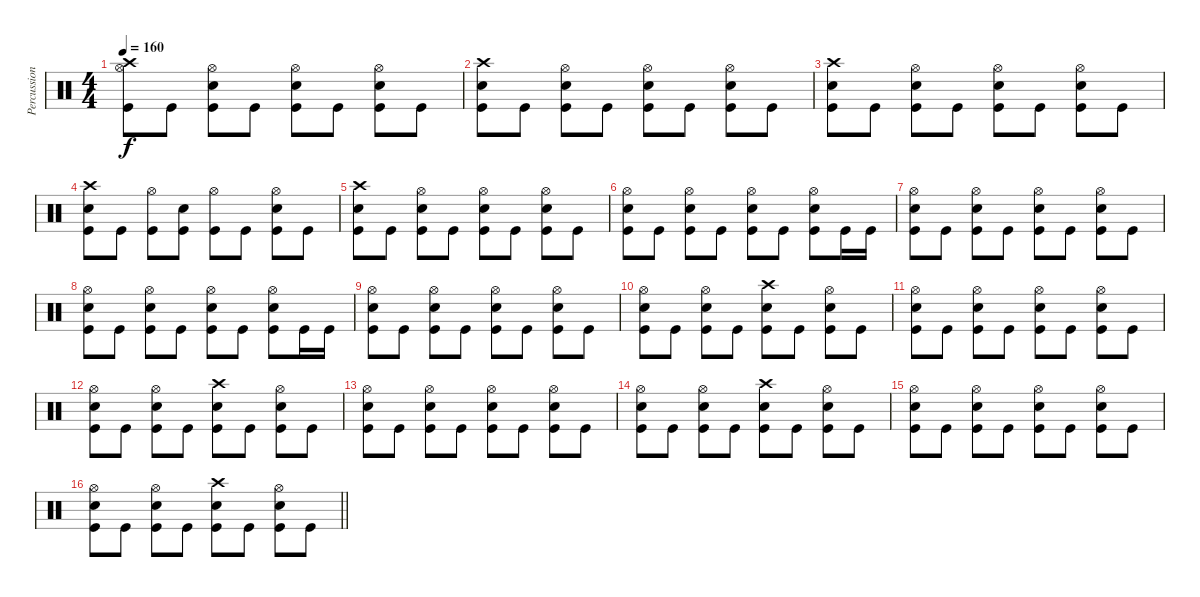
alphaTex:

\track ("Percussion" "Percussion") {instrument percussion}
\staff {score}
\articulation defaults
\ts (4 4)
\tempo 160
\clef neutral
\ks c
("Crash high (hit)" "Hi-Hat (open)" "Kick (hit)").8{dy f} "Kick (hit)".8 ("Hi-Hat (open)" "Electric Snare (hit)" "Kick (hit)").8 "Kick (hit)".8 ("Hi-Hat (open)" "Electric Snare (hit)" "Kick (hit)").8 "Kick (hit)".8 ("Hi-Hat (open)" "Electric Snare (hit)" "Kick (hit)").8 "Kick (hit)".8 |
("Crash high (hit)" "Electric Snare (hit)" "Kick (hit)").8 "Kick (hit)".8 ("Hi-Hat (open)" "Electric Snare (hit)" "Kick (hit)").8 "Kick (hit)".8 ("Hi-Hat (open)" "Electric Snare (hit)" "Kick (hit)").8 "Kick (hit)".8 ("Hi-Hat (open)" "Electric Snare (hit)" "Kick (hit)").8 "Kick (hit)".8 |
("Crash high (hit)" "Electric Snare (hit)" "Kick (hit)").8 "Kick (hit)".8 ("Hi-Hat (open)" "Electric Snare (hit)" "Kick (hit)").8 "Kick (hit)".8 ("Hi-Hat (open)" "Electric Snare (hit)" "Kick (hit)").8 "Kick (hit)".8 ("Hi-Hat (open)" "Electric Snare (hit)" "Kick (hit)").8 "Kick (hit)".8 |
("Crash high (hit)" "Electric Snare (hit)" "Kick (hit)").8 "Kick (hit)".8 ("Hi-Hat (open)" "Kick (hit)").8 ("Electric Snare (hit)" "Kick (hit)").8 ("Hi-Hat (open)" "Kick (hit)").8 "Kick (hit)".8 ("Hi-Hat (open)" "Electric Snare (hit)" "Kick (hit)").8 "Kick (hit)".8 |
("Crash high (hit)" "Electric Snare (hit)" "Kick (hit)").8 "Kick (hit)".8 ("Hi-Hat (open)" "Electric Snare (hit)" "Kick (hit)").8 "Kick (hit)".8 ("Hi-Hat (open)" "Electric Snare (hit)" "Kick (hit)").8 "Kick (hit)".8 ("Hi-Hat (open)" "Electric Snare (hit)" "Kick (hit)").8 "Kick (hit)".8 |
("Hi-Hat (open)" "Electric Snare (hit)" "Kick (hit)").8 "Kick (hit)".8 ("Hi-Hat (open)" "Electric Snare (hit)" "Kick (hit)").8 "Kick (hit)".8 ("Hi-Hat (open)" "Electric Snare (hit)" "Kick (hit)").8 "Kick (hit)".8 ("Hi-Hat (open)" "Electric Snare (hit)" "Kick (hit)").8 "Kick (hit)".16 "Kick (hit)".16 |
("Hi-Hat (open)" "Electric Snare (hit)" "Kick (hit)").8 "Kick (hit)".8 ("Hi-Hat (open)" "Electric Snare (hit)" "Kick (hit)").8 "Kick (hit)".8 ("Hi-Hat (open)" "Electric Snare (hit)" "Kick (hit)").8 "Kick (hit)".8 ("Hi-Hat (open)" "Electric Snare (hit)" "Kick (hit)").8 "Kick (hit)".8 |
("Hi-Hat (open)" "Electric Snare (hit)" "Kick (hit)").8 "Kick (hit)".8 ("Hi-Hat (open)" "Electric Snare (hit)" "Kick (hit)").8 "Kick (hit)".8 ("Hi-Hat (open)" "Electric Snare (hit)" "Kick (hit)").8 "Kick (hit)".8 ("Hi-Hat (open)" "Electric Snare (hit)" "Kick (hit)").8 "Kick (hit)".16 "Kick (hit)".16 |
("Hi-Hat (open)" "Electric Snare (hit)" "Kick (hit)").8 "Kick (hit)".8 ("Hi-Hat (open)" "Electric Snare (hit)" "Kick (hit)").8 "Kick (hit)".8 ("Hi-Hat (open)" "Electric Snare (hit)" "Kick (hit)").8 "Kick (hit)".8 ("Hi-Hat (open)" "Electric Snare (hit)" "Kick (hit)").8 "Kick (hit)".8 |
("Hi-Hat (open)" "Electric Snare (hit)" "Kick (hit)").8 "Kick (hit)".8 ("Hi-Hat (open)" "Electric Snare (hit)" "Kick (hit)").8 "Kick (hit)".8 ("Crash high (hit)" "Electric Snare (hit)" "Kick (hit)").8 "Kick (hit)".8 ("Hi-Hat (open)" "Electric Snare (hit)" "Kick (hit)").8 "Kick (hit)".8 |
("Hi-Hat (open)" "Electric Snare (hit)" "Kick (hit)").8 "Kick (hit)".8 ("Hi-Hat (open)" "Electric Snare (hit)" "Kick (hit)").8 "Kick (hit)".8 ("Hi-Hat (open)" "Electric Snare (hit)" "Kick (hit)").8 "Kick (hit)".8 ("Hi-Hat (open)" "Electric Snare (hit)" "Kick (hit)").8 "Kick (hit)".8 |
("Hi-Hat (open)" "Electric Snare (hit)" "Kick (hit)").8 "Kick (hit)".8 ("Hi-Hat (open)" "Electric Snare (hit)" "Kick (hit)").8 "Kick (hit)".8 ("Crash high (hit)" "Electric Snare (hit)" "Kick (hit)").8 "Kick (hit)".8 ("Hi-Hat (open)" "Electric Snare (hit)" "Kick (hit)").8 "Kick (hit)".8 |
("Hi-Hat (open)" "Electric Snare (hit)" "Kick (hit)").8 "Kick (hit)".8 ("Hi-Hat (open)" "Electric Snare (hit)" "Kick (hit)").8 "Kick (hit)".8 ("Hi-Hat (open)" "Electric Snare (hit)" "Kick (hit)").8 "Kick (hit)".8 ("Hi-Hat (open)" "Electric Snare (hit)" "Kick (hit)").8 "Kick (hit)".8 |
("Hi-Hat (open)" "Electric Snare (hit)" "Kick (hit)").8 "Kick (hit)".8 ("Hi-Hat (open)" "Electric Snare (hit)" "Kick (hit)").8 "Kick (hit)".8 ("Crash high (hit)" "Electric Snare (hit)" "Kick (hit)").8 "Kick (hit)".8 ("Hi-Hat (open)" "Electric Snare (hit)" "Kick (hit)").8 "Kick (hit)".8 |
("Hi-Hat (open)" "Electric Snare (hit)" "Kick (hit)").8 "Kick (hit)".8 ("Hi-Hat (open)" "Electric Snare (hit)" "Kick (hit)").8 "Kick (hit)".8 ("Hi-Hat (open)" "Electric Snare (hit)" "Kick (hit)").8 "Kick (hit)".8 ("Hi-Hat (open)" "Electric Snare (hit)" "Kick (hit)").8 "Kick (hit)".8 |
\barLineRight lightlight
("Hi-Hat (open)" "Electric Snare (hit)" "Kick (hit)").8 "Kick (hit)".8 ("Hi-Hat (open)" "Electric Snare (hit)" "Kick (hit)").8 "Kick (hit)".8 ("Crash high (hit)" "Electric Snare (hit)" "Kick (hit)").8 "Kick (hit)".8 ("Hi-Hat (open)" "Electric Snare (hit)" "Kick (hit)").8 "Kick (hit)".8
